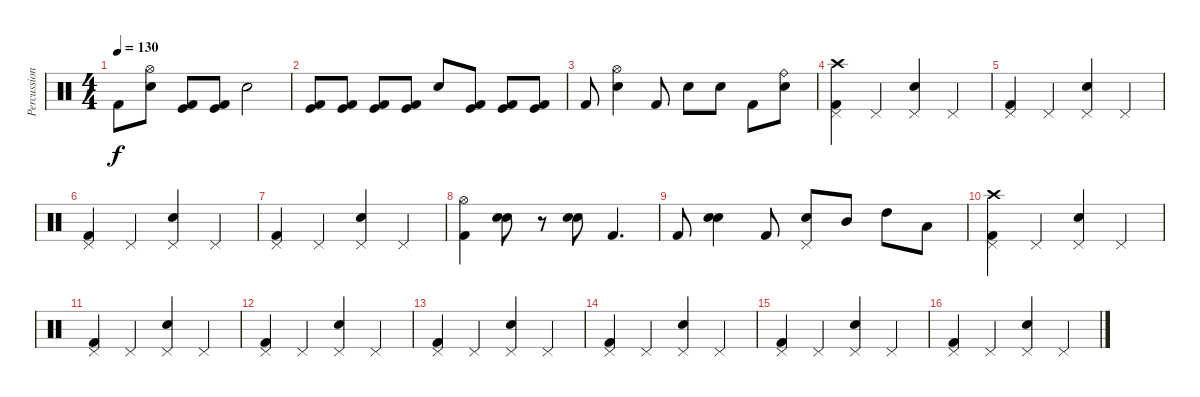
\track ("Percussion" "Percussion") {instrument percussion}
\staff {score}
\articulation defaults
\ts (4 4)
\tempo 130
\clef neutral
\ks c "Kick (hit) 2".8{dy f}
("Snare (hit) 2" "Hi-Hat (open)").8 ("Kick (hit) 2" "Kick (hit)").8 ("Kick (hit) 2" "Kick (hit)").8 "Snare (hit) 2".2 |
("Kick (hit) 2" "Kick (hit)").8 ("Kick (hit) 2" "Kick (hit)").8 ("Kick (hit) 2" "Kick (hit)").8 ("Kick (hit) 2" "Kick (hit)").8 "Snare (hit) 2".8 ("Kick (hit) 2" "Kick (hit)").8 ("Kick (hit) 2" "Kick (hit)").8 ("Kick (hit) 2" "Kick (hit)").8 |
"Kick (hit) 2".8 ("Snare (hit) 2" "Hi-Hat (open)").4 "Kick (hit) 2".8 "Snare (hit) 2".8 "Snare (hit) 2".8 "Kick (hit) 2".8 ("Snare (hit) 2" "Ride (bell)").8 |
("Pedal Hi-Hat (hit)" "Crash high (hit)" "Kick (hit) 2").4 "Pedal Hi-Hat (hit)".4 ("Pedal Hi-Hat (hit)" "Snare (hit) 2").4 "Pedal Hi-Hat (hit)".4 |
("Pedal Hi-Hat (hit)" "Kick (hit) 2").4 "Pedal Hi-Hat (hit)".4 ("Pedal Hi-Hat (hit)" "Snare (hit) 2").4 "Pedal Hi-Hat (hit)".4 |
("Pedal Hi-Hat (hit)" "Kick (hit) 2").4 "Pedal Hi-Hat (hit)".4 ("Pedal Hi-Hat (hit)" "Snare (hit) 2").4 "Pedal Hi-Hat (hit)".4 |
("Pedal Hi-Hat (hit)" "Kick (hit) 2").4 "Pedal Hi-Hat (hit)".4 ("Pedal Hi-Hat (hit)" "Snare (hit) 2").4 "Pedal Hi-Hat (hit)".4 |
("Hi-Hat (open)" "Kick (hit) 2").4 ("Electric Snare (hit)" "Snare (hit) 2").8 r.8 ("Electric Snare (hit)" "Snare (hit) 2").8 "Kick (hit) 2".4{d} |
"Kick (hit) 2".8 ("Electric Snare (hit)" "Snare (hit) 2").4 "Kick (hit) 2".8 ("Pedal Hi-Hat (hit)" "Snare (hit) 2").8 "Mid Tom (hit)".8 "High Tom (hit)".8 "Low Tom (hit)".8 |
("Pedal Hi-Hat (hit)" "Crash high (hit)" "Kick (hit) 2").4 "Pedal Hi-Hat (hit)".4 ("Pedal Hi-Hat (hit)" "Snare (hit) 2").4 "Pedal Hi-Hat (hit)".4 |
("Pedal Hi-Hat (hit)" "Kick (hit) 2").4 "Pedal Hi-Hat (hit)".4 ("Pedal Hi-Hat (hit)" "Snare (hit) 2").4 "Pedal Hi-Hat (hit)".4 |
("Pedal Hi-Hat (hit)" "Kick (hit) 2").4 "Pedal Hi-Hat (hit)".4 ("Pedal Hi-Hat (hit)" "Snare (hit) 2").4 "Pedal Hi-Hat (hit)".4 |
("Pedal Hi-Hat (hit)" "Kick (hit) 2").4 "Pedal Hi-Hat (hit)".4 ("Pedal Hi-Hat (hit)" "Snare (hit) 2").4 "Pedal Hi-Hat (hit)".4 |
("Pedal Hi-Hat (hit)" "Kick (hit) 2").4 "Pedal Hi-Hat (hit)".4 ("Pedal Hi-Hat (hit)" "Snare (hit) 2").4 "Pedal Hi-Hat (hit)".4 |
("Pedal Hi-Hat (hit)" "Kick (hit) 2").4 "Pedal Hi-Hat (hit)".4 ("Pedal Hi-Hat (hit)" "Snare (hit) 2").4 "Pedal Hi-Hat (hit)".4 |
("Pedal Hi-Hat (hit)" "Kick (hit) 2").4 "Pedal Hi-Hat (hit)".4 ("Pedal Hi-Hat (hit)" "Snare (hit) 2").4 "Pedal Hi-Hat (hit)".4
